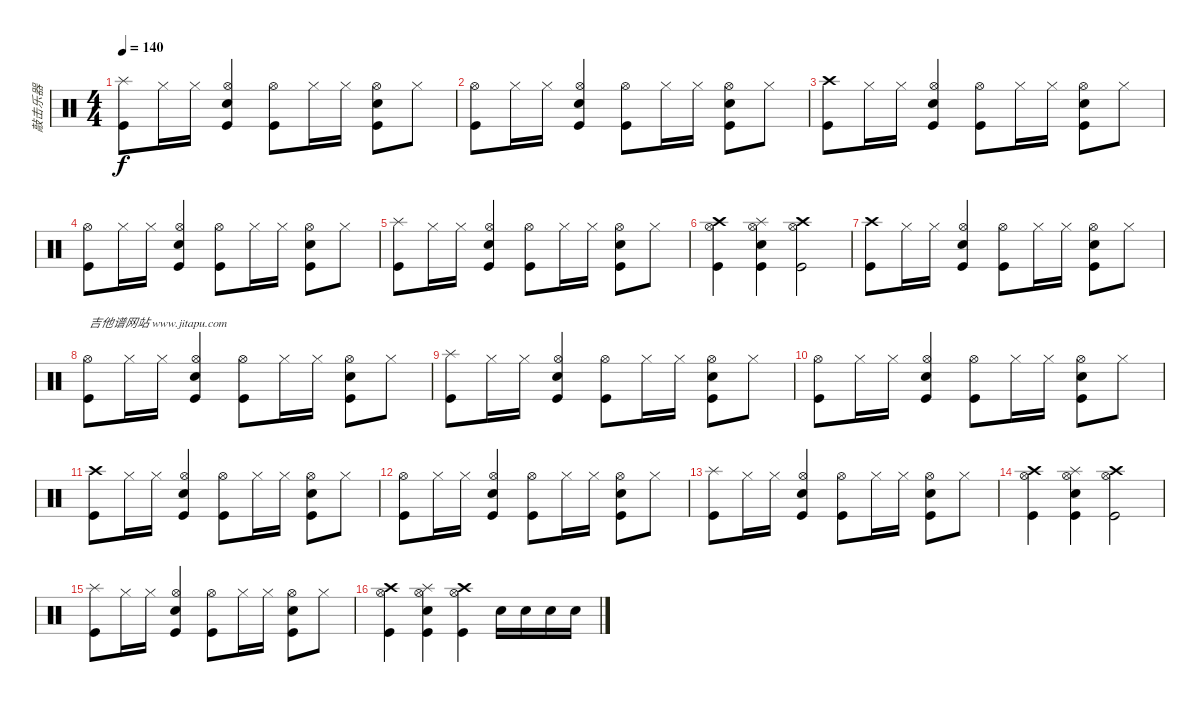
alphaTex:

\track ("敲击乐器" "敲击乐器") {instrument percussion}
\staff {score}
\articulation defaults
\ts (4 4)
\tempo 140
\clef neutral
\ks c
("Splash (hit)" "Kick (hit)").8{dy f} "Hi-Hat (closed)".16 "Hi-Hat (closed)".16 ("Hi-Hat (open)" "Electric Snare (hit)" "Kick (hit)").4 ("Hi-Hat (open)" "Kick (hit)").8 "Hi-Hat (closed)".16 "Hi-Hat (closed)".16 ("Hi-Hat (open)" "Electric Snare (hit)" "Kick (hit)").8 "Hi-Hat (closed)".8 |
("Hi-Hat (open)" "Kick (hit)").8 "Hi-Hat (closed)".16 "Hi-Hat (closed)".16 ("Hi-Hat (open)" "Electric Snare (hit)" "Kick (hit)").4 ("Hi-Hat (open)" "Kick (hit)").8 "Hi-Hat (closed)".16 "Hi-Hat (closed)".16 ("Hi-Hat (open)" "Electric Snare (hit)" "Kick (hit)").8 "Hi-Hat (closed)".8 |
("Crash high (hit)" "Kick (hit)").8 "Hi-Hat (closed)".16 "Hi-Hat (closed)".16 ("Hi-Hat (open)" "Electric Snare (hit)" "Kick (hit)").4 ("Hi-Hat (open)" "Kick (hit)").8 "Hi-Hat (closed)".16 "Hi-Hat (closed)".16 ("Hi-Hat (open)" "Electric Snare (hit)" "Kick (hit)").8 "Hi-Hat (closed)".8 |
("Hi-Hat (open)" "Kick (hit)").8 "Hi-Hat (closed)".16 "Hi-Hat (closed)".16 ("Hi-Hat (open)" "Electric Snare (hit)" "Kick (hit)").4 ("Hi-Hat (open)" "Kick (hit)").8 "Hi-Hat (closed)".16 "Hi-Hat (closed)".16 ("Hi-Hat (open)" "Electric Snare (hit)" "Kick (hit)").8 "Hi-Hat (closed)".8 |
("Splash (hit)" "Kick (hit)").8 "Hi-Hat (closed)".16 "Hi-Hat (closed)".16 ("Hi-Hat (open)" "Electric Snare (hit)" "Kick (hit)").4 ("Hi-Hat (open)" "Kick (hit)").8 "Hi-Hat (closed)".16 "Hi-Hat (closed)".16 ("Hi-Hat (open)" "Electric Snare (hit)" "Kick (hit)").8 "Hi-Hat (closed)".8 |
("Crash high (hit)" "Hi-Hat (open)" "Kick (hit)").4 ("Splash (hit)" "Hi-Hat (open)" "Electric Snare (hit)" "Kick (hit)").4 ("Crash high (hit)" "Hi-Hat (open)" "Kick (hit)").2 |
("Crash high (hit)" "Kick (hit)").8 "Hi-Hat (closed)".16 "Hi-Hat (closed)".16 ("Hi-Hat (open)" "Electric Snare (hit)" "Kick (hit)").4 ("Hi-Hat (open)" "Kick (hit)").8 "Hi-Hat (closed)".16 "Hi-Hat (closed)".16 ("Hi-Hat (open)" "Electric Snare (hit)" "Kick (hit)").8 "Hi-Hat (closed)".8 |
("Hi-Hat (open)" "Kick (hit)").8{txt "吉他谱网站 www.jitapu.com"} "Hi-Hat (closed)".16 "Hi-Hat (closed)".16 ("Hi-Hat (open)" "Electric Snare (hit)" "Kick (hit)").4 ("Hi-Hat (open)" "Kick (hit)").8 "Hi-Hat (closed)".16 "Hi-Hat (closed)".16 ("Hi-Hat (open)" "Electric Snare (hit)" "Kick (hit)").8 "Hi-Hat (closed)".8 |
("Splash (hit)" "Kick (hit)").8 "Hi-Hat (closed)".16 "Hi-Hat (closed)".16 ("Hi-Hat (open)" "Electric Snare (hit)" "Kick (hit)").4 ("Hi-Hat (open)" "Kick (hit)").8 "Hi-Hat (closed)".16 "Hi-Hat (closed)".16 ("Hi-Hat (open)" "Electric Snare (hit)" "Kick (hit)").8 "Hi-Hat (closed)".8 |
("Hi-Hat (open)" "Kick (hit)").8 "Hi-Hat (closed)".16 "Hi-Hat (closed)".16 ("Hi-Hat (open)" "Electric Snare (hit)" "Kick (hit)").4 ("Hi-Hat (open)" "Kick (hit)").8 "Hi-Hat (closed)".16 "Hi-Hat (closed)".16 ("Hi-Hat (open)" "Electric Snare (hit)" "Kick (hit)").8 "Hi-Hat (closed)".8 |
("Crash high (hit)" "Kick (hit)").8 "Hi-Hat (closed)".16 "Hi-Hat (closed)".16 ("Hi-Hat (open)" "Electric Snare (hit)" "Kick (hit)").4 ("Hi-Hat (open)" "Kick (hit)").8 "Hi-Hat (closed)".16 "Hi-Hat (closed)".16 ("Hi-Hat (open)" "Electric Snare (hit)" "Kick (hit)").8 "Hi-Hat (closed)".8 |
("Hi-Hat (open)" "Kick (hit)").8 "Hi-Hat (closed)".16 "Hi-Hat (closed)".16 ("Hi-Hat (open)" "Electric Snare (hit)" "Kick (hit)").4 ("Hi-Hat (open)" "Kick (hit)").8 "Hi-Hat (closed)".16 "Hi-Hat (closed)".16 ("Hi-Hat (open)" "Electric Snare (hit)" "Kick (hit)").8 "Hi-Hat (closed)".8 |
("Splash (hit)" "Kick (hit)").8 "Hi-Hat (closed)".16 "Hi-Hat (closed)".16 ("Hi-Hat (open)" "Electric Snare (hit)" "Kick (hit)").4 ("Hi-Hat (open)" "Kick (hit)").8 "Hi-Hat (closed)".16 "Hi-Hat (closed)".16 ("Hi-Hat (open)" "Electric Snare (hit)" "Kick (hit)").8 "Hi-Hat (closed)".8 |
("Crash high (hit)" "Hi-Hat (open)" "Kick (hit)").4 ("Splash (hit)" "Hi-Hat (open)" "Electric Snare (hit)" "Kick (hit)").4 ("Crash high (hit)" "Hi-Hat (open)" "Kick (hit)").2 |
("Splash (hit)" "Kick (hit)").8 "Hi-Hat (closed)".16 "Hi-Hat (closed)".16 ("Hi-Hat (open)" "Electric Snare (hit)" "Kick (hit)").4 ("Hi-Hat (open)" "Kick (hit)").8 "Hi-Hat (closed)".16 "Hi-Hat (closed)".16 ("Hi-Hat (open)" "Electric Snare (hit)" "Kick (hit)").8 "Hi-Hat (closed)".8 |
("Crash high (hit)" "Hi-Hat (open)" "Kick (hit)").4 ("Splash (hit)" "Hi-Hat (open)" "Electric Snare (hit)" "Kick (hit)").4 ("Crash high (hit)" "Hi-Hat (open)" "Kick (hit)").4 "Electric Snare (hit)".16 "Electric Snare (hit)".16 "Electric Snare (hit)".16 "Electric Snare (hit)".16
